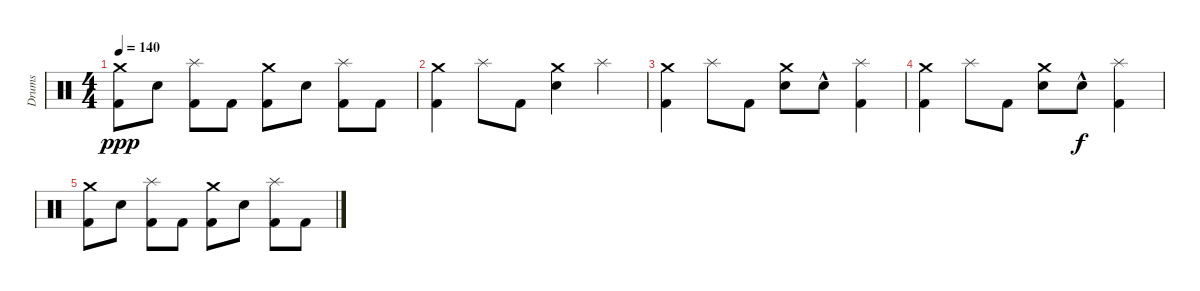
\track ("Drums" "Drums") {instrument percussion}
\staff {score}
\articulation defaults
\ts (4 4)
\tempo 140
\clef neutral
\ks c
("Crash medium (hit)" "Kick (hit) 2").8{dy ppp} "Snare (hit) 2".8 ("Splash (hit)" "Kick (hit) 2").8 "Kick (hit) 2".8 ("Crash medium (hit)" "Kick (hit) 2").8 "Snare (hit) 2".8 ("Splash (hit)" "Kick (hit) 2").8 "Kick (hit) 2".8 |
("Crash medium (hit)" "Kick (hit) 2").4 "Splash (hit)".8 "Kick (hit) 2".8 ("Crash medium (hit)" "Snare (hit) 2").4 "Splash (hit)".4 |
("Crash medium (hit)" "Kick (hit) 2").4 "Splash (hit)".8 "Kick (hit) 2".8 ("Crash medium (hit)" "Snare (hit) 2").8 "Snare (hit) 2"{hac}.8 ("Splash (hit)" "Kick (hit) 2").4 |
("Crash medium (hit)" "Kick (hit) 2").4 "Splash (hit)".8 "Kick (hit) 2".8 ("Crash medium (hit)" "Snare (hit) 2").8 "Snare (hit) 2"{hac}.8{dy f} ("Splash (hit)" "Kick (hit) 2").4 |
("Crash medium (hit)" "Kick (hit) 2").8 "Snare (hit) 2".8 ("Splash (hit)" "Kick (hit) 2").8 "Kick (hit) 2".8 ("Crash medium (hit)" "Kick (hit) 2").8 "Snare (hit) 2".8 ("Splash (hit)" "Kick (hit) 2").8 "Kick (hit) 2".8
